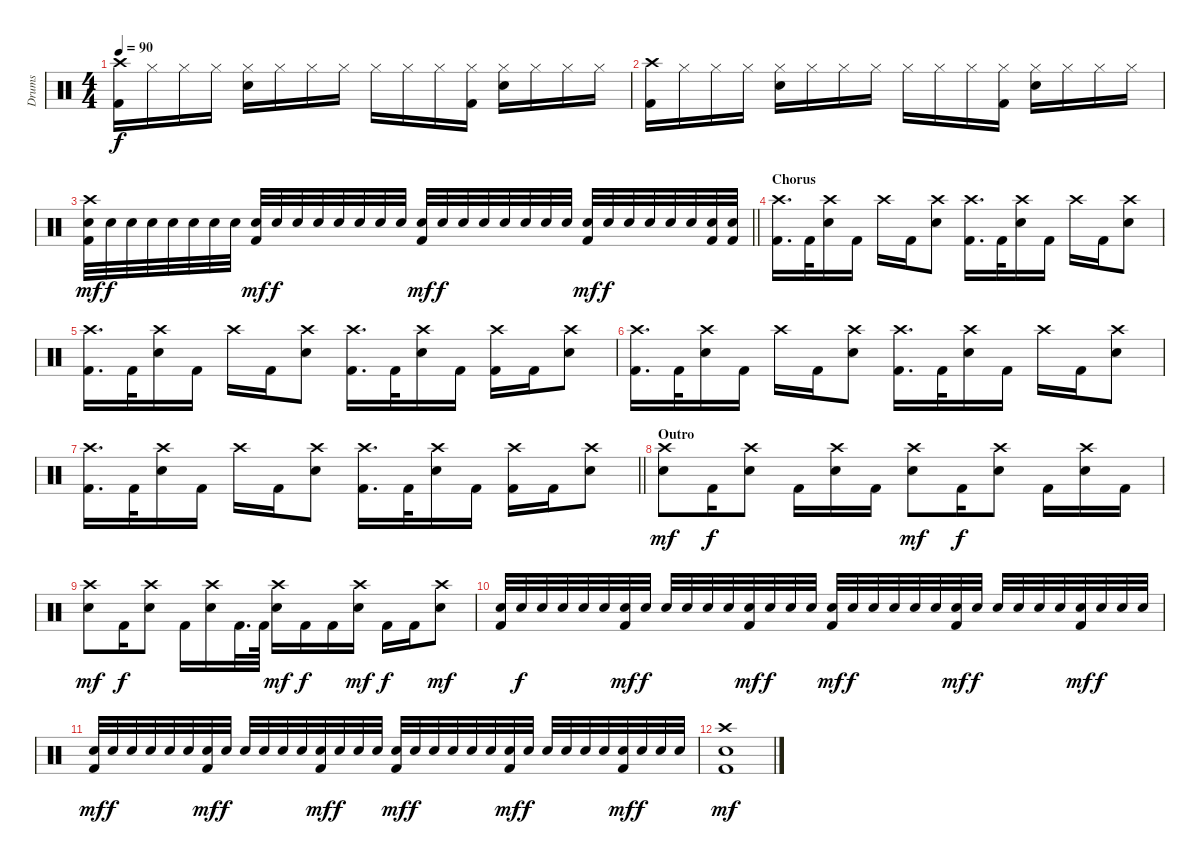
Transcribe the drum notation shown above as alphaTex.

\track ("Drums" "Drums") {instrument percussion}
\staff {score}
\articulation defaults
\ts (4 4)
\tempo 90
\clef neutral
\ks c
("Crash high (hit)" "Kick (hit) 2").16{dy f} "Hi-Hat (closed)".16 "Hi-Hat (closed)".16 "Hi-Hat (closed)".16 ("Hi-Hat (closed)" "Snare (hit) 2").16 "Hi-Hat (closed)".16 "Hi-Hat (closed)".16 "Hi-Hat (closed)".16 "Hi-Hat (closed)".16 "Hi-Hat (closed)".16 "Hi-Hat (closed)".16 ("Hi-Hat (closed)" "Kick (hit) 2").16 ("Hi-Hat (closed)" "Snare (hit) 2").16 "Hi-Hat (closed)".16 "Hi-Hat (closed)".16 "Hi-Hat (closed)".16 |
("Crash high (hit)" "Kick (hit) 2").16 "Hi-Hat (closed)".16 "Hi-Hat (closed)".16 "Hi-Hat (closed)".16 ("Hi-Hat (closed)" "Snare (hit) 2").16 "Hi-Hat (closed)".16 "Hi-Hat (closed)".16 "Hi-Hat (closed)".16 "Hi-Hat (closed)".16 "Hi-Hat (closed)".16 "Hi-Hat (closed)".16 ("Hi-Hat (closed)" "Kick (hit) 2").16 ("Hi-Hat (closed)" "Snare (hit) 2").16 "Hi-Hat (closed)".16 "Hi-Hat (closed)".16 "Hi-Hat (closed)".16 |
\barLineRight lightlight
("Crash high (hit)" "Snare (hit) 2" "Kick (hit) 2").32{dy mf} "Snare (hit) 2".32{dy f} "Snare (hit) 2".32 "Snare (hit) 2".32 "Snare (hit) 2".32 "Snare (hit) 2".32 "Snare (hit) 2".32 "Snare (hit) 2".32 ("Snare (hit) 2" "Kick (hit) 2").32{dy mf} "Snare (hit) 2".32{dy f} "Snare (hit) 2".32 "Snare (hit) 2".32 "Snare (hit) 2".32 "Snare (hit) 2".32 "Snare (hit) 2".32 "Snare (hit) 2".32 ("Snare (hit) 2" "Kick (hit) 2").32{dy mf} "Snare (hit) 2".32{dy f} "Snare (hit) 2".32 "Snare (hit) 2".32 "Snare (hit) 2".32 "Snare (hit) 2".32 "Snare (hit) 2".32 "Snare (hit) 2".32 ("Snare (hit) 2" "Kick (hit) 2").32{dy mf} "Snare (hit) 2".32{dy f} "Snare (hit) 2".32 "Snare (hit) 2".32 "Snare (hit) 2".32 "Snare (hit) 2".32 ("Snare (hit) 2" "Kick (hit) 2").32 ("Snare (hit) 2" "Kick (hit) 2").32 |
\section ("" "Chorus")
("Crash high (hit)" "Kick (hit) 2").16{d} "Kick (hit) 2".32 ("Crash high (hit)" "Snare (hit) 2").16 "Kick (hit) 2".16 "Crash high (hit)".16 "Kick (hit) 2".16 ("Crash high (hit)" "Snare (hit) 2").8 ("Crash high (hit)" "Kick (hit) 2").16{d} "Kick (hit) 2".32 ("Crash high (hit)" "Snare (hit) 2").16 "Kick (hit) 2".16 "Crash high (hit)".16 "Kick (hit) 2".16 ("Crash high (hit)" "Snare (hit) 2").8 |
("Crash high (hit)" "Kick (hit) 2").16{d} "Kick (hit) 2".32 ("Crash high (hit)" "Snare (hit) 2").16 "Kick (hit) 2".16 "Crash high (hit)".16 "Kick (hit) 2".16 ("Crash high (hit)" "Snare (hit) 2").8 ("Crash high (hit)" "Kick (hit) 2").16{d} "Kick (hit) 2".32 ("Crash high (hit)" "Snare (hit) 2").16 "Kick (hit) 2".16 ("Crash high (hit)" "Kick (hit) 2").16 "Kick (hit) 2".16 ("Crash high (hit)" "Snare (hit) 2").8 |
("Crash high (hit)" "Kick (hit) 2").16{d} "Kick (hit) 2".32 ("Crash high (hit)" "Snare (hit) 2").16 "Kick (hit) 2".16 "Crash high (hit)".16 "Kick (hit) 2".16 ("Crash high (hit)" "Snare (hit) 2").8 ("Crash high (hit)" "Kick (hit) 2").16{d} "Kick (hit) 2".32 ("Crash high (hit)" "Snare (hit) 2").16 "Kick (hit) 2".16 "Crash high (hit)".16 "Kick (hit) 2".16 ("Crash high (hit)" "Snare (hit) 2").8 |
\barLineRight lightlight
("Crash high (hit)" "Kick (hit) 2").16{d} "Kick (hit) 2".32 ("Crash high (hit)" "Snare (hit) 2").16 "Kick (hit) 2".16 "Crash high (hit)".16 "Kick (hit) 2".16 ("Crash high (hit)" "Snare (hit) 2").8 ("Crash high (hit)" "Kick (hit) 2").16{d} "Kick (hit) 2".32 ("Crash high (hit)" "Snare (hit) 2").16 "Kick (hit) 2".16 ("Crash high (hit)" "Kick (hit) 2").16 "Kick (hit) 2".16 ("Crash high (hit)" "Snare (hit) 2").8 |
\section ("" "Outro")
("Crash high (hit)" "Snare (hit) 2").8{dy mf} "Kick (hit) 2".16{dy f} ("Crash high (hit)" "Snare (hit) 2").8 "Kick (hit) 2".16 ("Crash high (hit)" "Snare (hit) 2").16 "Kick (hit) 2".16 ("Crash high (hit)" "Snare (hit) 2").8{dy mf} "Kick (hit) 2".16{dy f} ("Crash high (hit)" "Snare (hit) 2").8 "Kick (hit) 2".16 ("Crash high (hit)" "Snare (hit) 2").16 "Kick (hit) 2".16 |
("Crash high (hit)" "Snare (hit) 2").8{dy mf} "Kick (hit) 2".16{dy f} ("Crash high (hit)" "Snare (hit) 2").8 "Kick (hit) 2".16 ("Crash high (hit)" "Snare (hit) 2").16 "Kick (hit) 2".32{d} "Kick (hit) 2".64 ("Crash high (hit)" "Snare (hit) 2").16{dy mf} "Kick (hit) 2".16{dy f} "Kick (hit) 2".16 ("Crash high (hit)" "Snare (hit) 2").16{dy mf} "Kick (hit) 2".16{dy f} "Kick (hit) 2".16 ("Crash high (hit)" "Snare (hit) 2").8{dy mf} |
("Snare (hit) 2" "Kick (hit) 2").32 "Snare (hit) 2".32{dy f} "Snare (hit) 2".32 "Snare (hit) 2".32 "Snare (hit) 2".32 "Snare (hit) 2".32 ("Snare (hit) 2" "Kick (hit) 2").32{dy mf} "Snare (hit) 2".32{dy f} "Snare (hit) 2".32 "Snare (hit) 2".32 "Snare (hit) 2".32 "Snare (hit) 2".32 ("Snare (hit) 2" "Kick (hit) 2").32{dy mf} "Snare (hit) 2".32{dy f} "Snare (hit) 2".32 "Snare (hit) 2".32 ("Snare (hit) 2" "Kick (hit) 2").32{dy mf} "Snare (hit) 2".32{dy f} "Snare (hit) 2".32 "Snare (hit) 2".32 "Snare (hit) 2".32 "Snare (hit) 2".32 ("Snare (hit) 2" "Kick (hit) 2").32{dy mf} "Snare (hit) 2".32{dy f} "Snare (hit) 2".32 "Snare (hit) 2".32 "Snare (hit) 2".32 "Snare (hit) 2".32 ("Snare (hit) 2" "Kick (hit) 2").32{dy mf} "Snare (hit) 2".32{dy f} "Snare (hit) 2".32 "Snare (hit) 2".32 |
("Snare (hit) 2" "Kick (hit) 2").32{dy mf} "Snare (hit) 2".32{dy f} "Snare (hit) 2".32 "Snare (hit) 2".32 "Snare (hit) 2".32 "Snare (hit) 2".32 ("Snare (hit) 2" "Kick (hit) 2").32{dy mf} "Snare (hit) 2".32{dy f} "Snare (hit) 2".32 "Snare (hit) 2".32 "Snare (hit) 2".32 "Snare (hit) 2".32 ("Snare (hit) 2" "Kick (hit) 2").32{dy mf} "Snare (hit) 2".32{dy f} "Snare (hit) 2".32 "Snare (hit) 2".32 ("Snare (hit) 2" "Kick (hit) 2").32{dy mf} "Snare (hit) 2".32{dy f} "Snare (hit) 2".32 "Snare (hit) 2".32 "Snare (hit) 2".32 "Snare (hit) 2".32 ("Snare (hit) 2" "Kick (hit) 2").32{dy mf} "Snare (hit) 2".32{dy f} "Snare (hit) 2".32 "Snare (hit) 2".32 "Snare (hit) 2".32 "Snare (hit) 2".32 ("Snare (hit) 2" "Kick (hit) 2").32{dy mf} "Snare (hit) 2".32{dy f} "Snare (hit) 2".32 "Snare (hit) 2".32 |
("Crash high (hit)" "Snare (hit) 2" "Kick (hit) 2").1{dy mf}
